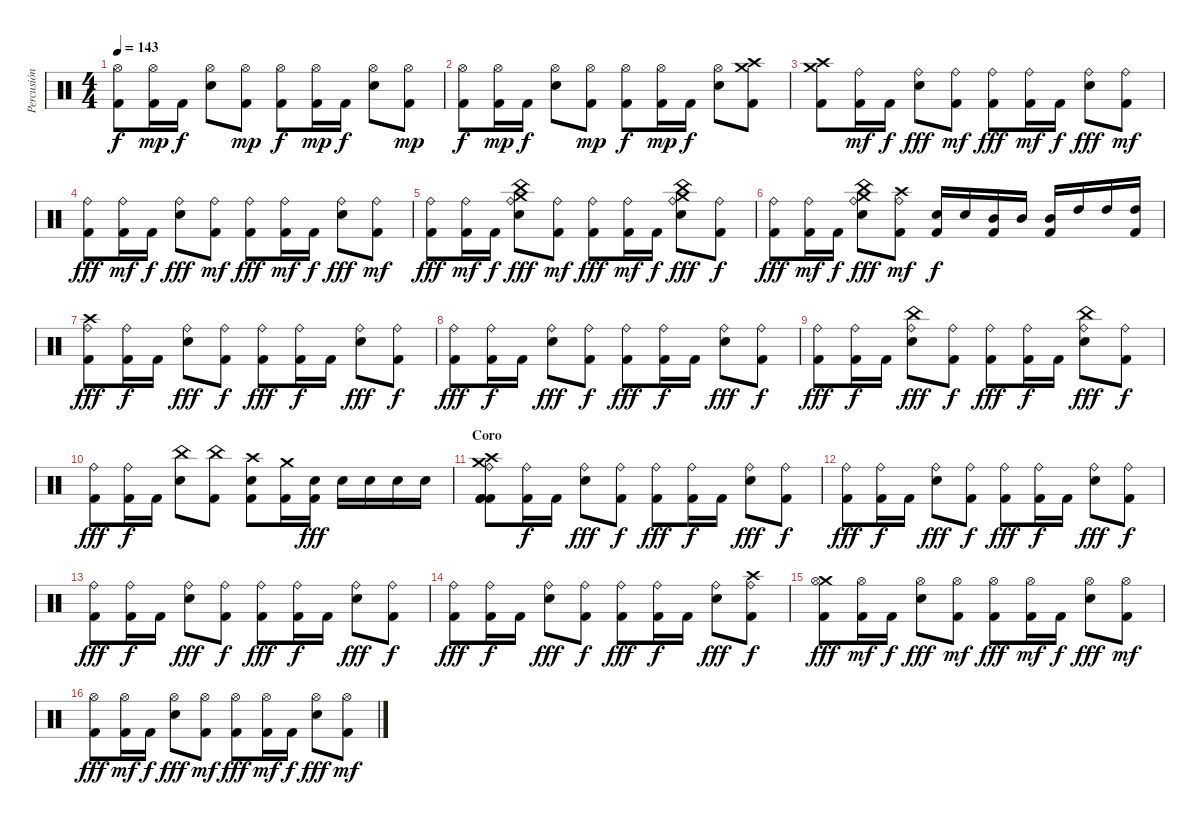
\track ("Percusión" "Percusión") {instrument percussion}
\staff {score}
\articulation defaults
\ts (4 4)
\tempo 143
\clef neutral
\ks c
("Hi-Hat (open)" "Kick (hit) 2").8{dy f} ("Hi-Hat (open)" "Kick (hit) 2").16{dy mp} "Kick (hit) 2".16{dy f} ("Hi-Hat (open)" "Electric Snare (hit)").8 ("Hi-Hat (open)" "Kick (hit) 2").8{dy mp} ("Hi-Hat (open)" "Kick (hit) 2").8{dy f} ("Hi-Hat (open)" "Kick (hit) 2").16{dy mp} "Kick (hit) 2".16{dy f} ("Hi-Hat (open)" "Electric Snare (hit)").8 ("Hi-Hat (open)" "Kick (hit) 2").8{dy mp} |
("Hi-Hat (open)" "Kick (hit) 2").8{dy f} ("Hi-Hat (open)" "Kick (hit) 2").16{dy mp} "Kick (hit) 2".16{dy f} ("Hi-Hat (open)" "Electric Snare (hit)").8 ("Hi-Hat (open)" "Kick (hit) 2").8{dy mp} ("Hi-Hat (open)" "Kick (hit) 2").8{dy f} ("Hi-Hat (open)" "Kick (hit) 2").16{dy mp} "Kick (hit) 2".16{dy f} ("Hi-Hat (open)" "Electric Snare (hit)").8 ("Crash high (hit)" "Crash medium (hit)" "Kick (hit) 2").8 |
("Crash high (hit)" "Crash medium (hit)" "Kick (hit) 2").8 ("Ride (bell)" "Kick (hit) 2").16{dy mf} "Kick (hit) 2".16{dy f} ("Ride (bell)" "Electric Snare (hit)").8{dy fff} ("Ride (bell)" "Kick (hit) 2").8{dy mf} ("Ride (bell)" "Kick (hit) 2").8{dy fff} ("Ride (bell)" "Kick (hit) 2").16{dy mf} "Kick (hit) 2".16{dy f} ("Ride (bell)" "Electric Snare (hit)").8{dy fff} ("Ride (bell)" "Kick (hit) 2").8{dy mf} |
("Ride (bell)" "Kick (hit) 2").8{dy fff} ("Ride (bell)" "Kick (hit) 2").16{dy mf} "Kick (hit) 2".16{dy f} ("Ride (bell)" "Electric Snare (hit)").8{dy fff} ("Ride (bell)" "Kick (hit) 2").8{dy mf} ("Ride (bell)" "Kick (hit) 2").8{dy fff} ("Ride (bell)" "Kick (hit) 2").16{dy mf} "Kick (hit) 2".16{dy f} ("Ride (bell)" "Electric Snare (hit)").8{dy fff} ("Ride (bell)" "Kick (hit) 2").8{dy mf} |
("Ride (bell)" "Kick (hit) 2").8{dy fff} ("Ride (bell)" "Kick (hit) 2").16{dy mf} "Kick (hit) 2".16{dy f} ("Crash medium (hit)" "China (hit)" "Ride (bell)" "Electric Snare (hit)").8{dy fff} ("Ride (bell)" "Kick (hit) 2").8{dy mf} ("Ride (bell)" "Kick (hit) 2").8{dy fff} ("Ride (bell)" "Kick (hit) 2").16{dy mf} "Kick (hit) 2".16{dy f} ("Crash medium (hit)" "China (hit)" "Ride (bell)" "Electric Snare (hit)").8{dy fff} ("Ride (bell)" "Kick (hit) 2").8{dy f} |
("Ride (bell)" "Kick (hit) 2").8{dy fff} ("Ride (bell)" "Kick (hit) 2").16{dy mf} "Kick (hit) 2".16{dy f} ("Crash medium (hit)" "China (hit)" "Ride (bell)" "Electric Snare (hit)").8{dy fff} ("Crash high (hit)" "Ride (bell)" "Kick (hit) 2").8{dy mf} ("Electric Snare (hit)" "Kick (hit) 2").16{dy f} "Electric Snare (hit)".16 ("Mid Tom (hit)" "Kick (hit) 2").16 "Mid Tom (hit)".16 ("Mid Tom (hit)" "Kick (hit) 2").16 "High Tom (hit)".16 "High Tom (hit)".16 ("High Tom (hit)" "Kick (hit) 2").16 |
("Crash high (hit)" "Ride (bell)" "Kick (hit) 2").8{dy fff} ("Ride (bell)" "Kick (hit) 2").16{dy f} "Kick (hit) 2".16 ("Ride (bell)" "Electric Snare (hit)").8{dy fff} ("Ride (bell)" "Kick (hit) 2").8{dy f} ("Ride (bell)" "Kick (hit) 2").8{dy fff} ("Ride (bell)" "Kick (hit) 2").16{dy f} "Kick (hit) 2".16 ("Ride (bell)" "Electric Snare (hit)").8{dy fff} ("Ride (bell)" "Kick (hit) 2").8{dy f} |
("Ride (bell)" "Kick (hit) 2").8{dy fff} ("Ride (bell)" "Kick (hit) 2").16{dy f} "Kick (hit) 2".16 ("Ride (bell)" "Electric Snare (hit)").8{dy fff} ("Ride (bell)" "Kick (hit) 2").8{dy f} ("Ride (bell)" "Kick (hit) 2").8{dy fff} ("Ride (bell)" "Kick (hit) 2").16{dy f} "Kick (hit) 2".16 ("Ride (bell)" "Electric Snare (hit)").8{dy fff} ("Ride (bell)" "Kick (hit) 2").8{dy f} |
("Ride (bell)" "Kick (hit) 2").8{dy fff} ("Ride (bell)" "Kick (hit) 2").16{dy f} "Kick (hit) 2".16 ("China (hit)" "Ride (bell)" "Electric Snare (hit)").8{dy fff} ("Ride (bell)" "Kick (hit) 2").8{dy f} ("Ride (bell)" "Kick (hit) 2").8{dy fff} ("Ride (bell)" "Kick (hit) 2").16{dy f} "Kick (hit) 2".16 ("China (hit)" "Ride (bell)" "Electric Snare (hit)").8{dy fff} ("Ride (bell)" "Kick (hit) 2").8{dy f} |
("Ride (bell)" "Kick (hit) 2").8{dy fff} ("Ride (bell)" "Kick (hit) 2").16{dy f} "Kick (hit) 2".16 ("China (hit)" "Electric Snare (hit)").8 ("China (hit)" "Kick (hit) 2").8 ("Crash high (hit)" "Electric Snare (hit)" "Kick (hit) 2").8 ("Crash medium (hit)" "Kick (hit) 2").16 ("Electric Snare (hit)" "Kick (hit) 2").16{dy fff} "Electric Snare (hit)".16 "Electric Snare (hit)".16 "Electric Snare (hit)".16 "Electric Snare (hit)".16 |
\section ("" "Coro")
("Crash high (hit)" "Crash medium (hit)" "Ride (bell)" "Kick (hit) 2" "Kick (hit) 2" "Kick (hit) 2").8 ("Ride (bell)" "Kick (hit) 2").16{dy f} "Kick (hit) 2".16 ("Ride (bell)" "Electric Snare (hit)").8{dy fff} ("Ride (bell)" "Kick (hit) 2").8{dy f} ("Ride (bell)" "Kick (hit) 2").8{dy fff} ("Ride (bell)" "Kick (hit) 2").16{dy f} "Kick (hit) 2".16 ("Ride (bell)" "Electric Snare (hit)").8{dy fff} ("Ride (bell)" "Kick (hit) 2").8{dy f} |
("Ride (bell)" "Kick (hit) 2").8{dy fff} ("Ride (bell)" "Kick (hit) 2").16{dy f} "Kick (hit) 2".16 ("Ride (bell)" "Electric Snare (hit)").8{dy fff} ("Ride (bell)" "Kick (hit) 2").8{dy f} ("Ride (bell)" "Kick (hit) 2").8{dy fff} ("Ride (bell)" "Kick (hit) 2").16{dy f} "Kick (hit) 2".16 ("Ride (bell)" "Electric Snare (hit)").8{dy fff} ("Ride (bell)" "Kick (hit) 2").8{dy f} |
("Ride (bell)" "Kick (hit) 2").8{dy fff} ("Ride (bell)" "Kick (hit) 2").16{dy f} "Kick (hit) 2".16 ("Ride (bell)" "Electric Snare (hit)").8{dy fff} ("Ride (bell)" "Kick (hit) 2").8{dy f} ("Ride (bell)" "Kick (hit) 2").8{dy fff} ("Ride (bell)" "Kick (hit) 2").16{dy f} "Kick (hit) 2".16 ("Ride (bell)" "Electric Snare (hit)").8{dy fff} ("Ride (bell)" "Kick (hit) 2").8{dy f} |
("Ride (bell)" "Kick (hit) 2").8{dy fff} ("Ride (bell)" "Kick (hit) 2").16{dy f} "Kick (hit) 2".16 ("Ride (bell)" "Electric Snare (hit)").8{dy fff} ("Ride (bell)" "Kick (hit) 2").8{dy f} ("Ride (bell)" "Kick (hit) 2").8{dy fff} ("Ride (bell)" "Kick (hit) 2").16{dy f} "Kick (hit) 2".16 ("Ride (bell)" "Electric Snare (hit)").8{dy fff} ("Crash high (hit)" "Ride (bell)" "Kick (hit) 2").8{dy f} |
("Crash medium (hit)" "Hi-Hat (open)" "Kick (hit) 2").8{dy fff} ("Hi-Hat (open)" "Kick (hit) 2").16{dy mf} "Kick (hit) 2".16{dy f} ("Hi-Hat (open)" "Electric Snare (hit)").8{dy fff} ("Hi-Hat (open)" "Kick (hit) 2").8{dy mf} ("Hi-Hat (open)" "Kick (hit) 2").8{dy fff} ("Hi-Hat (open)" "Kick (hit) 2").16{dy mf} "Kick (hit) 2".16{dy f} ("Hi-Hat (open)" "Electric Snare (hit)").8{dy fff} ("Hi-Hat (open)" "Kick (hit) 2").8{dy mf} |
("Hi-Hat (open)" "Kick (hit) 2").8{dy fff} ("Hi-Hat (open)" "Kick (hit) 2").16{dy mf} "Kick (hit) 2".16{dy f} ("Hi-Hat (open)" "Electric Snare (hit)").8{dy fff} ("Hi-Hat (open)" "Kick (hit) 2").8{dy mf} ("Hi-Hat (open)" "Kick (hit) 2").8{dy fff} ("Hi-Hat (open)" "Kick (hit) 2").16{dy mf} "Kick (hit) 2".16{dy f} ("Hi-Hat (open)" "Electric Snare (hit)").8{dy fff} ("Hi-Hat (open)" "Kick (hit) 2").8{dy mf}
